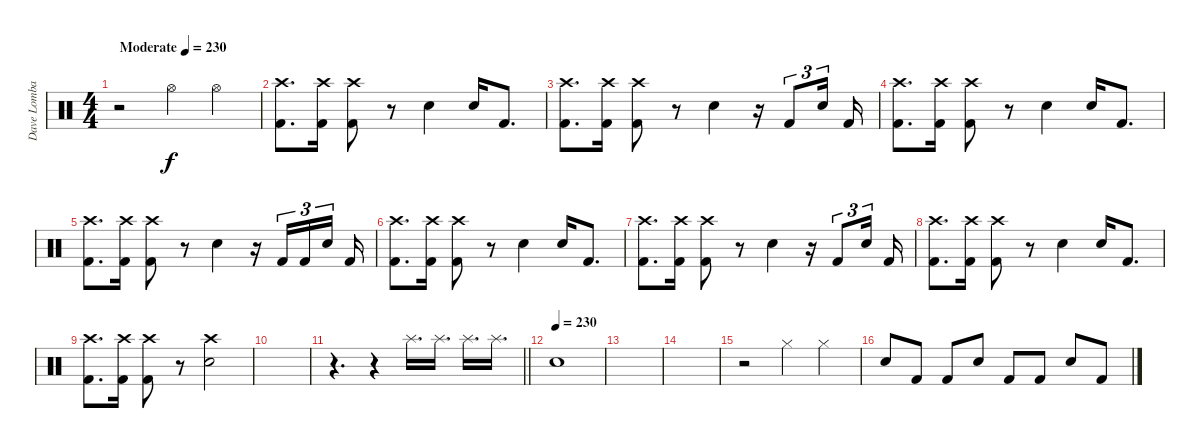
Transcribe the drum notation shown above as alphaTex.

\track ("Dave Lombardo" "Dave Lomba") {instrument percussion}
\staff {score}
\articulation defaults
\ts (4 4)
\tempo (230 "Moderate")
\tempo 75
\tempo (230 "Moderate")
\clef neutral
\ks c
r.2{dy f} "Hi-Hat (open)".4 "Hi-Hat (open)".4 |
("Crash high (hit)" "Kick (hit) 2").8{d} ("Crash high (hit)" "Kick (hit) 2").16 ("Crash high (hit)" "Kick (hit) 2").8 r.8 "Snare (hit) 2".4 "Snare (hit) 2".16 "Kick (hit) 2".8{d} |
("Crash high (hit)" "Kick (hit) 2").8{d} ("Crash high (hit)" "Kick (hit) 2").16 ("Crash high (hit)" "Kick (hit) 2").8 r.8 "Snare (hit) 2".4 r.16 "Kick (hit) 2".8{tu (3 2)} "Snare (hit) 2".16{tu (3 2)} "Kick (hit) 2".16 |
("Crash high (hit)" "Kick (hit) 2").8{d} ("Crash high (hit)" "Kick (hit) 2").16 ("Crash high (hit)" "Kick (hit) 2").8 r.8 "Snare (hit) 2".4 "Snare (hit) 2".16 "Kick (hit) 2".8{d} |
("Crash high (hit)" "Kick (hit) 2").8{d} ("Crash high (hit)" "Kick (hit) 2").16 ("Crash high (hit)" "Kick (hit) 2").8 r.8 "Snare (hit) 2".4 r.16 "Kick (hit) 2".16{tu (3 2)} "Kick (hit) 2".16{tu (3 2)} "Snare (hit) 2".16{tu (3 2) beam splitsecondary} "Kick (hit) 2".16 |
("Crash high (hit)" "Kick (hit) 2").8{d} ("Crash high (hit)" "Kick (hit) 2").16 ("Crash high (hit)" "Kick (hit) 2").8 r.8 "Snare (hit) 2".4 "Snare (hit) 2".16 "Kick (hit) 2".8{d} |
("Crash high (hit)" "Kick (hit) 2").8{d} ("Crash high (hit)" "Kick (hit) 2").16 ("Crash high (hit)" "Kick (hit) 2").8 r.8 "Snare (hit) 2".4 r.16 "Kick (hit) 2".8{tu (3 2)} "Snare (hit) 2".16{tu (3 2)} "Kick (hit) 2".16 |
("Crash high (hit)" "Kick (hit) 2").8{d} ("Crash high (hit)" "Kick (hit) 2").16 ("Crash high (hit)" "Kick (hit) 2").8 r.8 "Snare (hit) 2".4 "Snare (hit) 2".16 "Kick (hit) 2".8{d} |
("Crash high (hit)" "Kick (hit) 2").8{d} ("Crash high (hit)" "Kick (hit) 2").16 ("Crash high (hit)" "Kick (hit) 2").8 r.8 ("Crash high (hit)" "Snare (hit) 2").2 |
|
\barLineRight lightlight
r.4{d} r.4 "Splash (hit)".16{d} "Splash (hit)".16{d} "Splash (hit)".16{d} "Splash (hit)".16{d} |
\tempo (230)
"Snare (hit) 2".1 |
|
|
r.2 "Hi-Hat (closed)".4 "Hi-Hat (closed)".4 |
"Snare (hit) 2".8 "Kick (hit) 2".8 "Kick (hit) 2".8 "Snare (hit) 2".8 "Kick (hit) 2".8 "Kick (hit) 2".8 "Snare (hit) 2".8 "Kick (hit) 2".8
